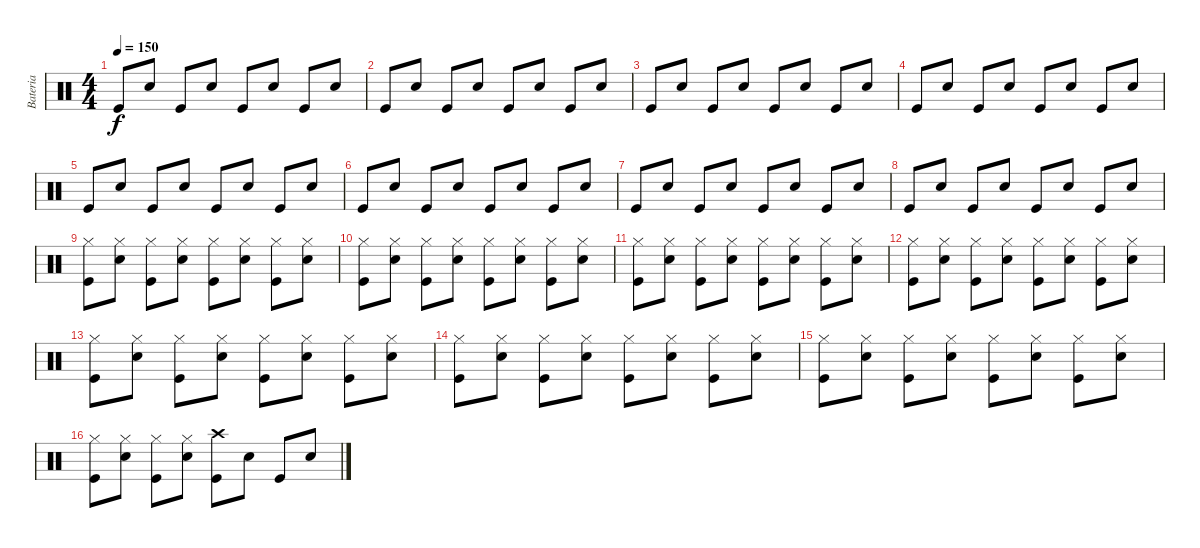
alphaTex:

\track ("Bateria" "Bateria") {instrument percussion}
\staff {score}
\articulation defaults
\ts (4 4)
\tempo 150
\clef neutral
\ks c "Kick (hit)".8{dy f} "Electric Snare (hit)".8 "Kick (hit)".8 "Electric Snare (hit)".8 "Kick (hit)".8 "Electric Snare (hit)".8 "Kick (hit)".8 "Electric Snare (hit)".8
|
"Kick (hit)".8 "Electric Snare (hit)".8 "Kick (hit)".8 "Electric Snare (hit)".8 "Kick (hit)".8 "Electric Snare (hit)".8 "Kick (hit)".8 "Electric Snare (hit)".8 |
"Kick (hit)".8 "Electric Snare (hit)".8 "Kick (hit)".8 "Electric Snare (hit)".8 "Kick (hit)".8 "Electric Snare (hit)".8 "Kick (hit)".8 "Electric Snare (hit)".8 |
"Kick (hit)".8 "Electric Snare (hit)".8 "Kick (hit)".8 "Electric Snare (hit)".8 "Kick (hit)".8 "Electric Snare (hit)".8 "Kick (hit)".8 "Electric Snare (hit)".8 |
"Kick (hit)".8 "Electric Snare (hit)".8 "Kick (hit)".8 "Electric Snare (hit)".8 "Kick (hit)".8 "Electric Snare (hit)".8 "Kick (hit)".8 "Electric Snare (hit)".8 |
"Kick (hit)".8 "Electric Snare (hit)".8 "Kick (hit)".8 "Electric Snare (hit)".8 "Kick (hit)".8 "Electric Snare (hit)".8 "Kick (hit)".8 "Electric Snare (hit)".8 |
"Kick (hit)".8 "Electric Snare (hit)".8 "Kick (hit)".8 "Electric Snare (hit)".8 "Kick (hit)".8 "Electric Snare (hit)".8 "Kick (hit)".8 "Electric Snare (hit)".8 |
"Kick (hit)".8 "Electric Snare (hit)".8 "Kick (hit)".8 "Electric Snare (hit)".8 "Kick (hit)".8 "Electric Snare (hit)".8 "Kick (hit)".8 "Electric Snare (hit)".8 |
("Kick (hit)" "Hi-Hat (closed)").8 ("Electric Snare (hit)" "Hi-Hat (closed)").8 ("Kick (hit)" "Hi-Hat (closed)").8 ("Electric Snare (hit)" "Hi-Hat (closed)").8 ("Kick (hit)" "Hi-Hat (closed)").8 ("Electric Snare (hit)" "Hi-Hat (closed)").8 ("Kick (hit)" "Hi-Hat (closed)").8 ("Electric Snare (hit)" "Hi-Hat (closed)").8 |
("Kick (hit)" "Hi-Hat (closed)").8 ("Electric Snare (hit)" "Hi-Hat (closed)").8 ("Kick (hit)" "Hi-Hat (closed)").8 ("Electric Snare (hit)" "Hi-Hat (closed)").8 ("Kick (hit)" "Hi-Hat (closed)").8 ("Electric Snare (hit)" "Hi-Hat (closed)").8 ("Kick (hit)" "Hi-Hat (closed)").8 ("Electric Snare (hit)" "Hi-Hat (closed)").8 |
("Kick (hit)" "Hi-Hat (closed)").8 ("Electric Snare (hit)" "Hi-Hat (closed)").8 ("Kick (hit)" "Hi-Hat (closed)").8 ("Electric Snare (hit)" "Hi-Hat (closed)").8 ("Kick (hit)" "Hi-Hat (closed)").8 ("Electric Snare (hit)" "Hi-Hat (closed)").8 ("Kick (hit)" "Hi-Hat (closed)").8 ("Electric Snare (hit)" "Hi-Hat (closed)").8 |
("Kick (hit)" "Hi-Hat (closed)").8 ("Electric Snare (hit)" "Hi-Hat (closed)").8 ("Kick (hit)" "Hi-Hat (closed)").8 ("Electric Snare (hit)" "Hi-Hat (closed)").8 ("Kick (hit)" "Hi-Hat (closed)").8 ("Electric Snare (hit)" "Hi-Hat (closed)").8 ("Kick (hit)" "Hi-Hat (closed)").8 ("Electric Snare (hit)" "Hi-Hat (closed)").8 |
("Kick (hit)" "Hi-Hat (closed)").8 ("Electric Snare (hit)" "Hi-Hat (closed)").8 ("Kick (hit)" "Hi-Hat (closed)").8 ("Electric Snare (hit)" "Hi-Hat (closed)").8 ("Kick (hit)" "Hi-Hat (closed)").8 ("Electric Snare (hit)" "Hi-Hat (closed)").8 ("Kick (hit)" "Hi-Hat (closed)").8 ("Electric Snare (hit)" "Hi-Hat (closed)").8 |
("Kick (hit)" "Hi-Hat (closed)").8 ("Electric Snare (hit)" "Hi-Hat (closed)").8 ("Kick (hit)" "Hi-Hat (closed)").8 ("Electric Snare (hit)" "Hi-Hat (closed)").8 ("Kick (hit)" "Hi-Hat (closed)").8 ("Electric Snare (hit)" "Hi-Hat (closed)").8 ("Kick (hit)" "Hi-Hat (closed)").8 ("Electric Snare (hit)" "Hi-Hat (closed)").8 |
("Kick (hit)" "Hi-Hat (closed)").8 ("Electric Snare (hit)" "Hi-Hat (closed)").8 ("Kick (hit)" "Hi-Hat (closed)").8 ("Electric Snare (hit)" "Hi-Hat (closed)").8 ("Kick (hit)" "Hi-Hat (closed)").8 ("Electric Snare (hit)" "Hi-Hat (closed)").8 ("Kick (hit)" "Hi-Hat (closed)").8 ("Electric Snare (hit)" "Hi-Hat (closed)").8 |
("Kick (hit)" "Hi-Hat (closed)").8 ("Electric Snare (hit)" "Hi-Hat (closed)").8 ("Kick (hit)" "Hi-Hat (closed)").8 ("Electric Snare (hit)" "Hi-Hat (closed)").8 ("Kick (hit)" "Crash high (hit)").8 "Electric Snare (hit)".8 "Kick (hit)".8 "Electric Snare (hit)".8
